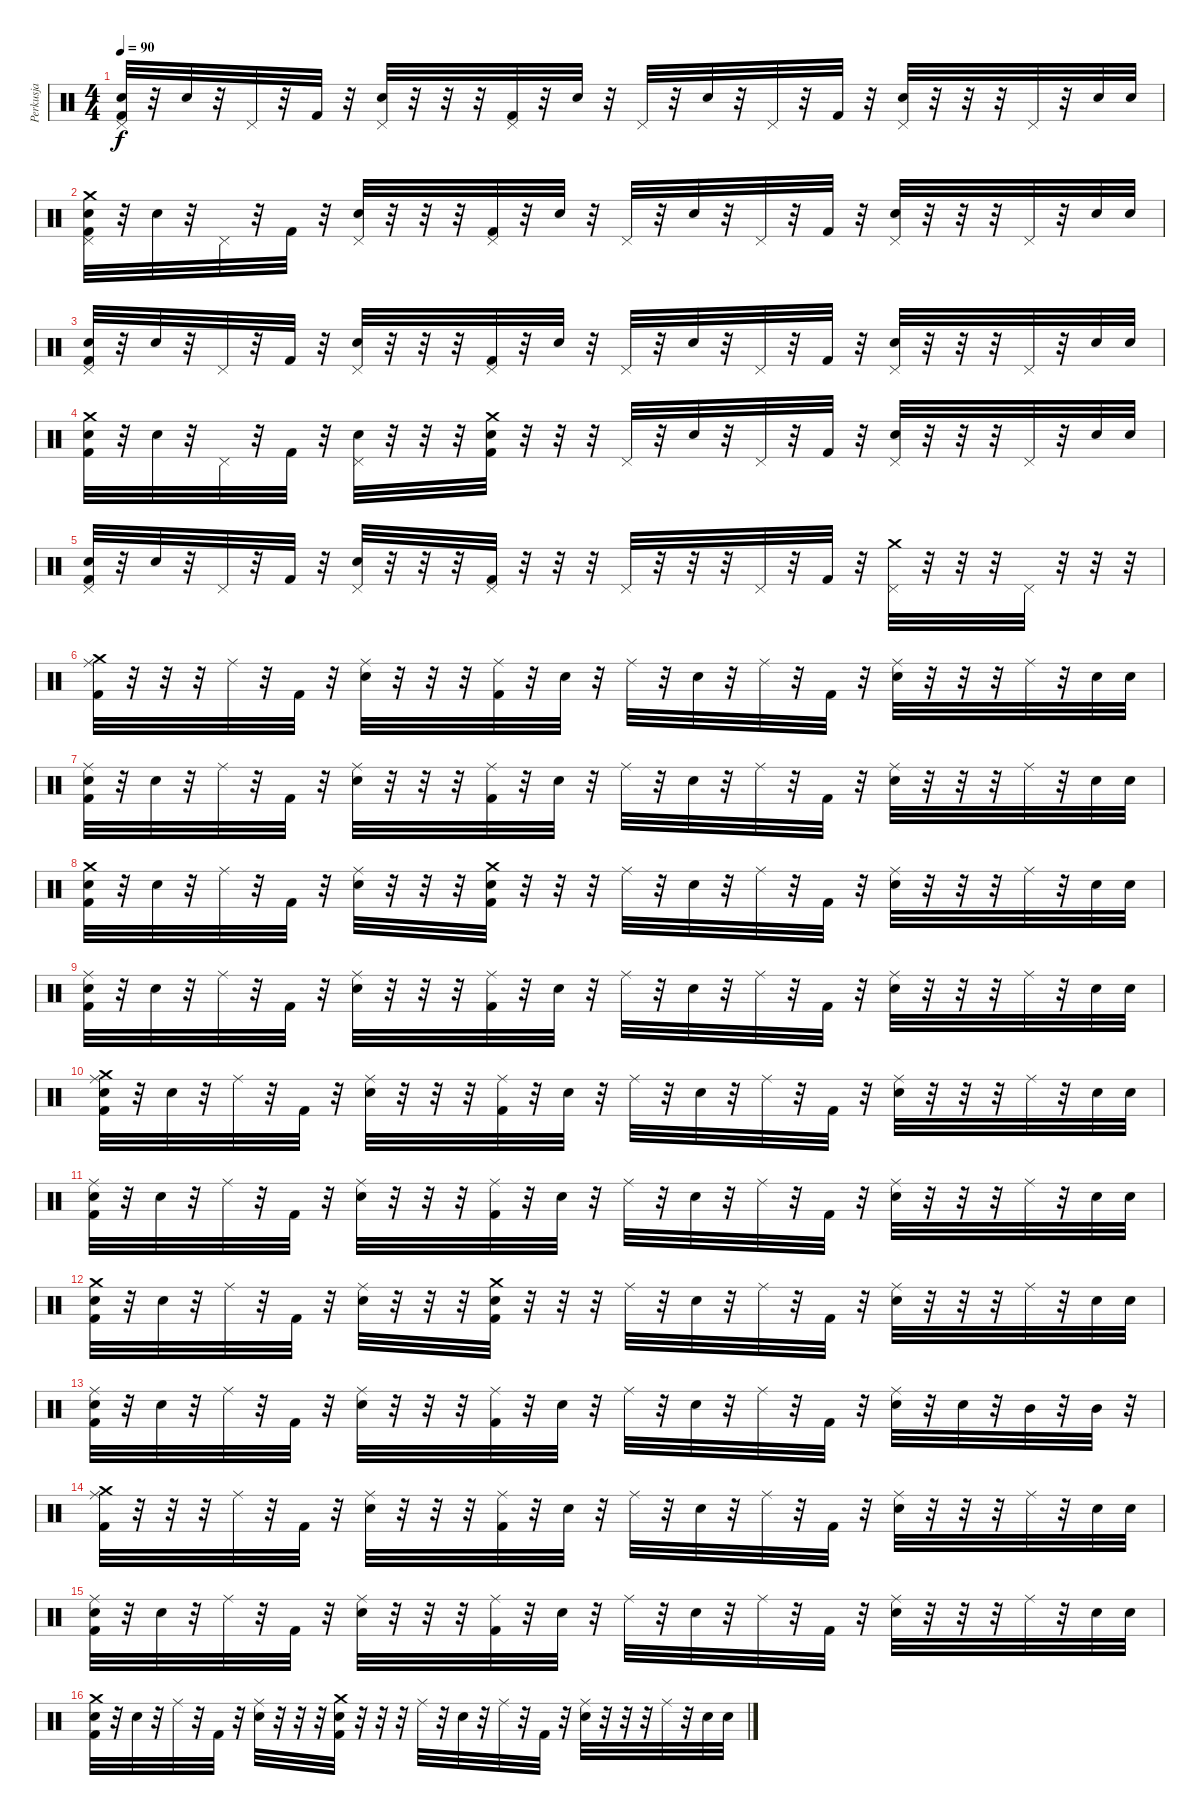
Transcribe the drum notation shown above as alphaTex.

\track ("Perkusja" "Perkusja") {instrument percussion}
\staff {score}
\articulation defaults
\ts (4 4)
\tempo 90
\clef neutral
\ks c
("Pedal Hi-Hat (hit)" "Snare (hit) 2" "Kick (hit) 2").32{dy f} r.32 "Snare (hit) 2".32 r.32 "Pedal Hi-Hat (hit)".32 r.32 "Kick (hit) 2".32 r.32 ("Pedal Hi-Hat (hit)" "Electric Snare (hit)").32 r.32 r.32 r.32 ("Pedal Hi-Hat (hit)" "Kick (hit) 2").32 r.32 "Snare (hit) 2".32 r.32 "Pedal Hi-Hat (hit)".32 r.32 "Snare (hit) 2".32 r.32 "Pedal Hi-Hat (hit)".32 r.32 "Kick (hit) 2".32 r.32 ("Pedal Hi-Hat (hit)" "Electric Snare (hit)").32 r.32 r.32 r.32 "Pedal Hi-Hat (hit)".32 r.32 "Snare (hit) 2".32 "Snare (hit) 2".32 |
("Crash medium (hit)" "Pedal Hi-Hat (hit)" "Snare (hit) 2" "Kick (hit) 2").32 r.32 "Snare (hit) 2".32 r.32 "Pedal Hi-Hat (hit)".32 r.32 "Kick (hit) 2".32 r.32 ("Pedal Hi-Hat (hit)" "Electric Snare (hit)").32 r.32 r.32 r.32 ("Pedal Hi-Hat (hit)" "Kick (hit) 2").32 r.32 "Snare (hit) 2".32 r.32 "Pedal Hi-Hat (hit)".32 r.32 "Snare (hit) 2".32 r.32 "Pedal Hi-Hat (hit)".32 r.32 "Kick (hit) 2".32 r.32 ("Pedal Hi-Hat (hit)" "Electric Snare (hit)").32 r.32 r.32 r.32 "Pedal Hi-Hat (hit)".32 r.32 "Snare (hit) 2".32 "Snare (hit) 2".32 |
("Pedal Hi-Hat (hit)" "Snare (hit) 2" "Kick (hit) 2").32 r.32 "Snare (hit) 2".32 r.32 "Pedal Hi-Hat (hit)".32 r.32 "Kick (hit) 2".32 r.32 ("Pedal Hi-Hat (hit)" "Electric Snare (hit)").32 r.32 r.32 r.32 ("Pedal Hi-Hat (hit)" "Kick (hit) 2").32 r.32 "Snare (hit) 2".32 r.32 "Pedal Hi-Hat (hit)".32 r.32 "Snare (hit) 2".32 r.32 "Pedal Hi-Hat (hit)".32 r.32 "Kick (hit) 2".32 r.32 ("Pedal Hi-Hat (hit)" "Electric Snare (hit)").32 r.32 r.32 r.32 "Pedal Hi-Hat (hit)".32 r.32 "Snare (hit) 2".32 "Snare (hit) 2".32 |
("Crash medium (hit)" "Snare (hit) 2" "Kick (hit) 2").32 r.32 "Snare (hit) 2".32 r.32 "Pedal Hi-Hat (hit)".32 r.32 "Kick (hit) 2".32 r.32 ("Pedal Hi-Hat (hit)" "Electric Snare (hit)").32 r.32 r.32 r.32 ("Crash medium (hit)" "Electric Snare (hit)" "Kick (hit) 2").32 r.32 r.32 r.32 "Pedal Hi-Hat (hit)".32 r.32 "Snare (hit) 2".32 r.32 "Pedal Hi-Hat (hit)".32 r.32 "Kick (hit) 2".32 r.32 ("Pedal Hi-Hat (hit)" "Electric Snare (hit)").32 r.32 r.32 r.32 "Pedal Hi-Hat (hit)".32 r.32 "Snare (hit) 2".32 "Snare (hit) 2".32 |
("Pedal Hi-Hat (hit)" "Snare (hit) 2" "Kick (hit) 2").32 r.32 "Snare (hit) 2".32 r.32 "Pedal Hi-Hat (hit)".32 r.32 "Kick (hit) 2".32 r.32 ("Pedal Hi-Hat (hit)" "Electric Snare (hit)").32 r.32 r.32 r.32 ("Pedal Hi-Hat (hit)" "Kick (hit) 2").32 r.32 r.32 r.32 "Pedal Hi-Hat (hit)".32 r.32 r.32 r.32 "Pedal Hi-Hat (hit)".32 r.32 "Kick (hit) 2".32 r.32 ("Crash medium (hit)" "Pedal Hi-Hat (hit)").32 r.32 r.32 r.32 "Pedal Hi-Hat (hit)".32 r.32 r.32 r.32 |
("Crash medium (hit)" "Ride (middle)" "Kick (hit) 2").32 r.32 r.32 r.32 "Ride (middle)".32 r.32 "Kick (hit) 2".32 r.32 ("Ride (middle)" "Electric Snare (hit)").32 r.32 r.32 r.32 ("Ride (middle)" "Kick (hit) 2").32 r.32 "Snare (hit) 2".32 r.32 "Ride (middle)".32 r.32 "Snare (hit) 2".32 r.32 "Ride (middle)".32 r.32 "Kick (hit) 2".32 r.32 ("Ride (middle)" "Electric Snare (hit)").32 r.32 r.32 r.32 "Ride (middle)".32 r.32 "Snare (hit) 2".32 "Snare (hit) 2".32 |
("Ride (middle)" "Snare (hit) 2" "Kick (hit) 2").32 r.32 "Snare (hit) 2".32 r.32 "Ride (middle)".32 r.32 "Kick (hit) 2".32 r.32 ("Ride (middle)" "Electric Snare (hit)").32 r.32 r.32 r.32 ("Ride (middle)" "Kick (hit) 2").32 r.32 "Snare (hit) 2".32 r.32 "Ride (middle)".32 r.32 "Snare (hit) 2".32 r.32 "Ride (middle)".32 r.32 "Kick (hit) 2".32 r.32 ("Ride (middle)" "Electric Snare (hit)").32 r.32 r.32 r.32 "Ride (middle)".32 r.32 "Snare (hit) 2".32 "Snare (hit) 2".32 |
("Crash medium (hit)" "Snare (hit) 2" "Kick (hit) 2").32 r.32 "Snare (hit) 2".32 r.32 "Ride (middle)".32 r.32 "Kick (hit) 2".32 r.32 ("Ride (middle)" "Electric Snare (hit)").32 r.32 r.32 r.32 ("Crash medium (hit)" "Electric Snare (hit)" "Kick (hit) 2").32 r.32 r.32 r.32 "Ride (middle)".32 r.32 "Snare (hit) 2".32 r.32 "Ride (middle)".32 r.32 "Kick (hit) 2".32 r.32 ("Ride (middle)" "Electric Snare (hit)").32 r.32 r.32 r.32 "Ride (middle)".32 r.32 "Snare (hit) 2".32 "Snare (hit) 2".32 |
("Ride (middle)" "Snare (hit) 2" "Kick (hit) 2").32 r.32 "Snare (hit) 2".32 r.32 "Ride (middle)".32 r.32 "Kick (hit) 2".32 r.32 ("Ride (middle)" "Electric Snare (hit)").32 r.32 r.32 r.32 ("Ride (middle)" "Kick (hit) 2").32 r.32 "Snare (hit) 2".32 r.32 "Ride (middle)".32 r.32 "Snare (hit) 2".32 r.32 "Ride (middle)".32 r.32 "Kick (hit) 2".32 r.32 ("Ride (middle)" "Electric Snare (hit)").32 r.32 r.32 r.32 "Ride (middle)".32 r.32 "Snare (hit) 2".32 "Snare (hit) 2".32 |
("Crash medium (hit)" "Ride (middle)" "Snare (hit) 2" "Kick (hit) 2").32 r.32 "Snare (hit) 2".32 r.32 "Ride (middle)".32 r.32 "Kick (hit) 2".32 r.32 ("Ride (middle)" "Electric Snare (hit)").32 r.32 r.32 r.32 ("Ride (middle)" "Kick (hit) 2").32 r.32 "Snare (hit) 2".32 r.32 "Ride (middle)".32 r.32 "Snare (hit) 2".32 r.32 "Ride (middle)".32 r.32 "Kick (hit) 2".32 r.32 ("Ride (middle)" "Electric Snare (hit)").32 r.32 r.32 r.32 "Ride (middle)".32 r.32 "Snare (hit) 2".32 "Snare (hit) 2".32 |
("Ride (middle)" "Snare (hit) 2" "Kick (hit) 2").32 r.32 "Snare (hit) 2".32 r.32 "Ride (middle)".32 r.32 "Kick (hit) 2".32 r.32 ("Ride (middle)" "Electric Snare (hit)").32 r.32 r.32 r.32 ("Ride (middle)" "Kick (hit) 2").32 r.32 "Snare (hit) 2".32 r.32 "Ride (middle)".32 r.32 "Snare (hit) 2".32 r.32 "Ride (middle)".32 r.32 "Kick (hit) 2".32 r.32 ("Ride (middle)" "Electric Snare (hit)").32 r.32 r.32 r.32 "Ride (middle)".32 r.32 "Snare (hit) 2".32 "Snare (hit) 2".32 |
("Crash medium (hit)" "Snare (hit) 2" "Kick (hit) 2").32 r.32 "Snare (hit) 2".32 r.32 "Ride (middle)".32 r.32 "Kick (hit) 2".32 r.32 ("Ride (middle)" "Electric Snare (hit)").32 r.32 r.32 r.32 ("Crash medium (hit)" "Electric Snare (hit)" "Kick (hit) 2").32 r.32 r.32 r.32 "Ride (middle)".32 r.32 "Snare (hit) 2".32 r.32 "Ride (middle)".32 r.32 "Kick (hit) 2".32 r.32 ("Ride (middle)" "Electric Snare (hit)").32 r.32 r.32 r.32 "Ride (middle)".32 r.32 "Snare (hit) 2".32 "Snare (hit) 2".32 |
("Ride (middle)" "Snare (hit) 2" "Kick (hit) 2").32 r.32 "Snare (hit) 2".32 r.32 "Ride (middle)".32 r.32 "Kick (hit) 2".32 r.32 ("Ride (middle)" "Electric Snare (hit)").32 r.32 r.32 r.32 ("Ride (middle)" "Kick (hit) 2").32 r.32 "Snare (hit) 2".32 r.32 "Ride (middle)".32 r.32 "Snare (hit) 2".32 r.32 "Ride (middle)".32 r.32 "Kick (hit) 2".32 r.32 ("Ride (middle)" "Electric Snare (hit)").32 r.32 "Electric Snare (hit)".32 r.32 "Mid Tom (hit)".32 r.32 "Mid Tom (hit)".32 r.32 |
("Crash medium (hit)" "Ride (middle)" "Kick (hit) 2").32 r.32 r.32 r.32 "Ride (middle)".32 r.32 "Kick (hit) 2".32 r.32 ("Ride (middle)" "Electric Snare (hit)").32 r.32 r.32 r.32 ("Ride (middle)" "Kick (hit) 2").32 r.32 "Snare (hit) 2".32 r.32 "Ride (middle)".32 r.32 "Snare (hit) 2".32 r.32 "Ride (middle)".32 r.32 "Kick (hit) 2".32 r.32 ("Ride (middle)" "Electric Snare (hit)").32 r.32 r.32 r.32 "Ride (middle)".32 r.32 "Snare (hit) 2".32 "Snare (hit) 2".32 |
("Ride (middle)" "Snare (hit) 2" "Kick (hit) 2").32 r.32 "Snare (hit) 2".32 r.32 "Ride (middle)".32 r.32 "Kick (hit) 2".32 r.32 ("Ride (middle)" "Electric Snare (hit)").32 r.32 r.32 r.32 ("Ride (middle)" "Kick (hit) 2").32 r.32 "Snare (hit) 2".32 r.32 "Ride (middle)".32 r.32 "Snare (hit) 2".32 r.32 "Ride (middle)".32 r.32 "Kick (hit) 2".32 r.32 ("Ride (middle)" "Electric Snare (hit)").32 r.32 r.32 r.32 "Ride (middle)".32 r.32 "Snare (hit) 2".32 "Snare (hit) 2".32 |
("Crash medium (hit)" "Snare (hit) 2" "Kick (hit) 2").32 r.32 "Snare (hit) 2".32 r.32 "Ride (middle)".32 r.32 "Kick (hit) 2".32 r.32 ("Ride (middle)" "Electric Snare (hit)").32 r.32 r.32 r.32 ("Crash medium (hit)" "Electric Snare (hit)" "Kick (hit) 2").32 r.32 r.32 r.32 "Ride (middle)".32 r.32 "Snare (hit) 2".32 r.32 "Ride (middle)".32 r.32 "Kick (hit) 2".32 r.32 ("Ride (middle)" "Electric Snare (hit)").32 r.32 r.32 r.32 "Ride (middle)".32 r.32 "Snare (hit) 2".32 "Snare (hit) 2".32
